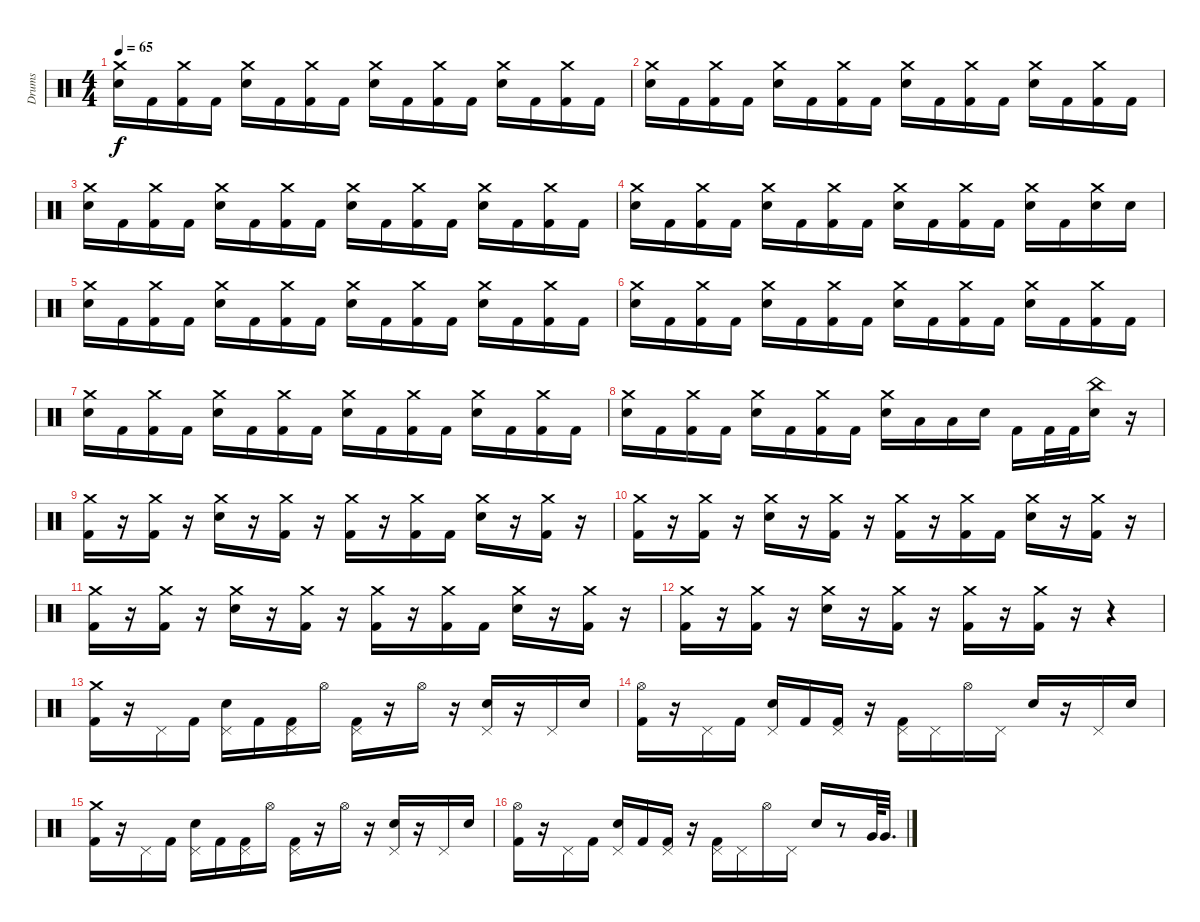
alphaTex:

\track ("Drums" "Drums") {instrument percussion}
\staff {score}
\articulation defaults
\ts (4 4)
\tempo 65
\clef neutral
\ks c
("Crash medium (hit)" "Electric Snare (hit)").16{dy f} "Kick (hit) 2".16 ("Crash medium (hit)" "Kick (hit) 2").16 "Kick (hit) 2".16 ("Crash medium (hit)" "Electric Snare (hit)").16 "Kick (hit) 2".16 ("Crash medium (hit)" "Kick (hit) 2").16 "Kick (hit) 2".16 ("Crash medium (hit)" "Electric Snare (hit)").16 "Kick (hit) 2".16 ("Crash medium (hit)" "Kick (hit) 2").16 "Kick (hit) 2".16 ("Crash medium (hit)" "Electric Snare (hit)").16 "Kick (hit) 2".16 ("Crash medium (hit)" "Kick (hit) 2").16 "Kick (hit) 2".16 |
("Crash medium (hit)" "Electric Snare (hit)").16 "Kick (hit) 2".16 ("Crash medium (hit)" "Kick (hit) 2").16 "Kick (hit) 2".16 ("Crash medium (hit)" "Electric Snare (hit)").16 "Kick (hit) 2".16 ("Crash medium (hit)" "Kick (hit) 2").16 "Kick (hit) 2".16 ("Crash medium (hit)" "Electric Snare (hit)").16 "Kick (hit) 2".16 ("Crash medium (hit)" "Kick (hit) 2").16 "Kick (hit) 2".16 ("Crash medium (hit)" "Electric Snare (hit)").16 "Kick (hit) 2".16 ("Crash medium (hit)" "Kick (hit) 2").16 "Kick (hit) 2".16 |
("Crash medium (hit)" "Electric Snare (hit)").16 "Kick (hit) 2".16 ("Crash medium (hit)" "Kick (hit) 2").16 "Kick (hit) 2".16 ("Crash medium (hit)" "Electric Snare (hit)").16 "Kick (hit) 2".16 ("Crash medium (hit)" "Kick (hit) 2").16 "Kick (hit) 2".16 ("Crash medium (hit)" "Electric Snare (hit)").16 "Kick (hit) 2".16 ("Crash medium (hit)" "Kick (hit) 2").16 "Kick (hit) 2".16 ("Crash medium (hit)" "Electric Snare (hit)").16 "Kick (hit) 2".16 ("Crash medium (hit)" "Kick (hit) 2").16 "Kick (hit) 2".16 |
("Crash medium (hit)" "Electric Snare (hit)").16 "Kick (hit) 2".16 ("Crash medium (hit)" "Kick (hit) 2").16 "Kick (hit) 2".16 ("Crash medium (hit)" "Electric Snare (hit)").16 "Kick (hit) 2".16 ("Crash medium (hit)" "Kick (hit) 2").16 "Kick (hit) 2".16 ("Crash medium (hit)" "Electric Snare (hit)").16 "Kick (hit) 2".16 ("Crash medium (hit)" "Kick (hit) 2").16 "Kick (hit) 2".16 ("Crash medium (hit)" "Electric Snare (hit)").16 "Kick (hit) 2".16 ("Crash medium (hit)" "Electric Snare (hit)").16 "Electric Snare (hit)".16 |
("Crash medium (hit)" "Electric Snare (hit)").16 "Kick (hit) 2".16 ("Crash medium (hit)" "Kick (hit) 2").16 "Kick (hit) 2".16 ("Crash medium (hit)" "Electric Snare (hit)").16 "Kick (hit) 2".16 ("Crash medium (hit)" "Kick (hit) 2").16 "Kick (hit) 2".16 ("Crash medium (hit)" "Electric Snare (hit)").16 "Kick (hit) 2".16 ("Crash medium (hit)" "Kick (hit) 2").16 "Kick (hit) 2".16 ("Crash medium (hit)" "Electric Snare (hit)").16 "Kick (hit) 2".16 ("Crash medium (hit)" "Kick (hit) 2").16 "Kick (hit) 2".16 |
("Crash medium (hit)" "Electric Snare (hit)").16 "Kick (hit) 2".16 ("Crash medium (hit)" "Kick (hit) 2").16 "Kick (hit) 2".16 ("Crash medium (hit)" "Electric Snare (hit)").16 "Kick (hit) 2".16 ("Crash medium (hit)" "Kick (hit) 2").16 "Kick (hit) 2".16 ("Crash medium (hit)" "Electric Snare (hit)").16 "Kick (hit) 2".16 ("Crash medium (hit)" "Kick (hit) 2").16 "Kick (hit) 2".16 ("Crash medium (hit)" "Electric Snare (hit)").16 "Kick (hit) 2".16 ("Crash medium (hit)" "Kick (hit) 2").16 "Kick (hit) 2".16 |
("Crash medium (hit)" "Electric Snare (hit)").16 "Kick (hit) 2".16 ("Crash medium (hit)" "Kick (hit) 2").16 "Kick (hit) 2".16 ("Crash medium (hit)" "Electric Snare (hit)").16 "Kick (hit) 2".16 ("Crash medium (hit)" "Kick (hit) 2").16 "Kick (hit) 2".16 ("Crash medium (hit)" "Electric Snare (hit)").16 "Kick (hit) 2".16 ("Crash medium (hit)" "Kick (hit) 2").16 "Kick (hit) 2".16 ("Crash medium (hit)" "Electric Snare (hit)").16 "Kick (hit) 2".16 ("Crash medium (hit)" "Kick (hit) 2").16 "Kick (hit) 2".16 |
("Crash medium (hit)" "Electric Snare (hit)").16 "Kick (hit) 2".16 ("Crash medium (hit)" "Kick (hit) 2").16 "Kick (hit) 2".16 ("Crash medium (hit)" "Electric Snare (hit)").16 "Kick (hit) 2".16 ("Crash medium (hit)" "Kick (hit) 2").16 "Kick (hit) 2".16 ("Crash medium (hit)" "Electric Snare (hit)").16 "Low Tom (hit)".16 "Low Tom (hit)".16 "Electric Snare (hit)".16 "Kick (hit) 2".16 "Kick (hit) 2".32 "Kick (hit) 2".32 ("China (hit)" "Electric Snare (hit)").16 r.16 |
("Crash medium (hit)" "Kick (hit) 2").16 r.16 ("Crash medium (hit)" "Kick (hit) 2").16 r.16 ("Crash medium (hit)" "Electric Snare (hit)").16 r.16 ("Crash medium (hit)" "Kick (hit) 2").16 r.16 ("Crash medium (hit)" "Kick (hit) 2").16 r.16 ("Crash medium (hit)" "Kick (hit) 2").16 "Kick (hit) 2".16 ("Crash medium (hit)" "Electric Snare (hit)").16 r.16 ("Crash medium (hit)" "Kick (hit) 2").16 r.16 |
("Crash medium (hit)" "Kick (hit) 2").16 r.16 ("Crash medium (hit)" "Kick (hit) 2").16 r.16 ("Crash medium (hit)" "Electric Snare (hit)").16 r.16 ("Crash medium (hit)" "Kick (hit) 2").16 r.16 ("Crash medium (hit)" "Kick (hit) 2").16 r.16 ("Crash medium (hit)" "Kick (hit) 2").16 "Kick (hit) 2".16 ("Crash medium (hit)" "Electric Snare (hit)").16 r.16 ("Crash medium (hit)" "Kick (hit) 2").16 r.16 |
("Crash medium (hit)" "Kick (hit) 2").16 r.16 ("Crash medium (hit)" "Kick (hit) 2").16 r.16 ("Crash medium (hit)" "Electric Snare (hit)").16 r.16 ("Crash medium (hit)" "Kick (hit) 2").16 r.16 ("Crash medium (hit)" "Kick (hit) 2").16 r.16 ("Crash medium (hit)" "Kick (hit) 2").16 "Kick (hit) 2".16 ("Crash medium (hit)" "Electric Snare (hit)").16 r.16 ("Crash medium (hit)" "Kick (hit) 2").16 r.16 |
("Crash medium (hit)" "Kick (hit) 2").16 r.16 ("Crash medium (hit)" "Kick (hit) 2").16 r.16 ("Crash medium (hit)" "Electric Snare (hit)").16 r.16 ("Crash medium (hit)" "Kick (hit) 2").16 r.16 ("Crash medium (hit)" "Kick (hit) 2").16 r.16 ("Crash medium (hit)" "Kick (hit) 2").16 r.16 r.4 |
("Crash medium (hit)" "Kick (hit) 2").16 r.16 "Pedal Hi-Hat (hit)".16 "Kick (hit) 2".16 ("Pedal Hi-Hat (hit)" "Electric Snare (hit)").16 "Kick (hit) 2".16 ("Pedal Hi-Hat (hit)" "Kick (hit) 2").16 "Hi-Hat (open)".16 ("Pedal Hi-Hat (hit)" "Kick (hit) 2").16 r.16 "Hi-Hat (open)".16 r.16 ("Pedal Hi-Hat (hit)" "Electric Snare (hit)").16 r.16 "Pedal Hi-Hat (hit)".16 "Electric Snare (hit)".16 |
("Hi-Hat (open)" "Kick (hit) 2").16 r.16 "Pedal Hi-Hat (hit)".16 "Kick (hit) 2".16 ("Pedal Hi-Hat (hit)" "Electric Snare (hit)").16 "Kick (hit) 2".16 ("Pedal Hi-Hat (hit)" "Kick (hit) 2").16 r.16 ("Pedal Hi-Hat (hit)" "Kick (hit) 2").16 "Pedal Hi-Hat (hit)".16 "Hi-Hat (open)".16 "Pedal Hi-Hat (hit)".16 "Electric Snare (hit)".16 r.16 "Pedal Hi-Hat (hit)".16 "Electric Snare (hit)".16 |
("Crash medium (hit)" "Kick (hit) 2").16 r.16 "Pedal Hi-Hat (hit)".16 "Kick (hit) 2".16 ("Pedal Hi-Hat (hit)" "Electric Snare (hit)").16 "Kick (hit) 2".16 ("Pedal Hi-Hat (hit)" "Kick (hit) 2").16 "Hi-Hat (open)".16 ("Pedal Hi-Hat (hit)" "Kick (hit) 2").16 r.16 "Hi-Hat (open)".16 r.16 ("Pedal Hi-Hat (hit)" "Electric Snare (hit)").16 r.16 "Pedal Hi-Hat (hit)".16 "Electric Snare (hit)".16 |
("Hi-Hat (open)" "Kick (hit) 2").16 r.16 "Pedal Hi-Hat (hit)".16 "Kick (hit) 2".16 ("Pedal Hi-Hat (hit)" "Electric Snare (hit)").16 "Kick (hit) 2".16 ("Pedal Hi-Hat (hit)" "Kick (hit) 2").16 r.16 ("Pedal Hi-Hat (hit)" "Kick (hit) 2").16 "Pedal Hi-Hat (hit)".16 "Hi-Hat (open)".16 "Pedal Hi-Hat (hit)".16 "Electric Snare (hit)".16 r.8 "Very Low Tom (hit)".64 "Very Low Tom (hit)".32{d}
